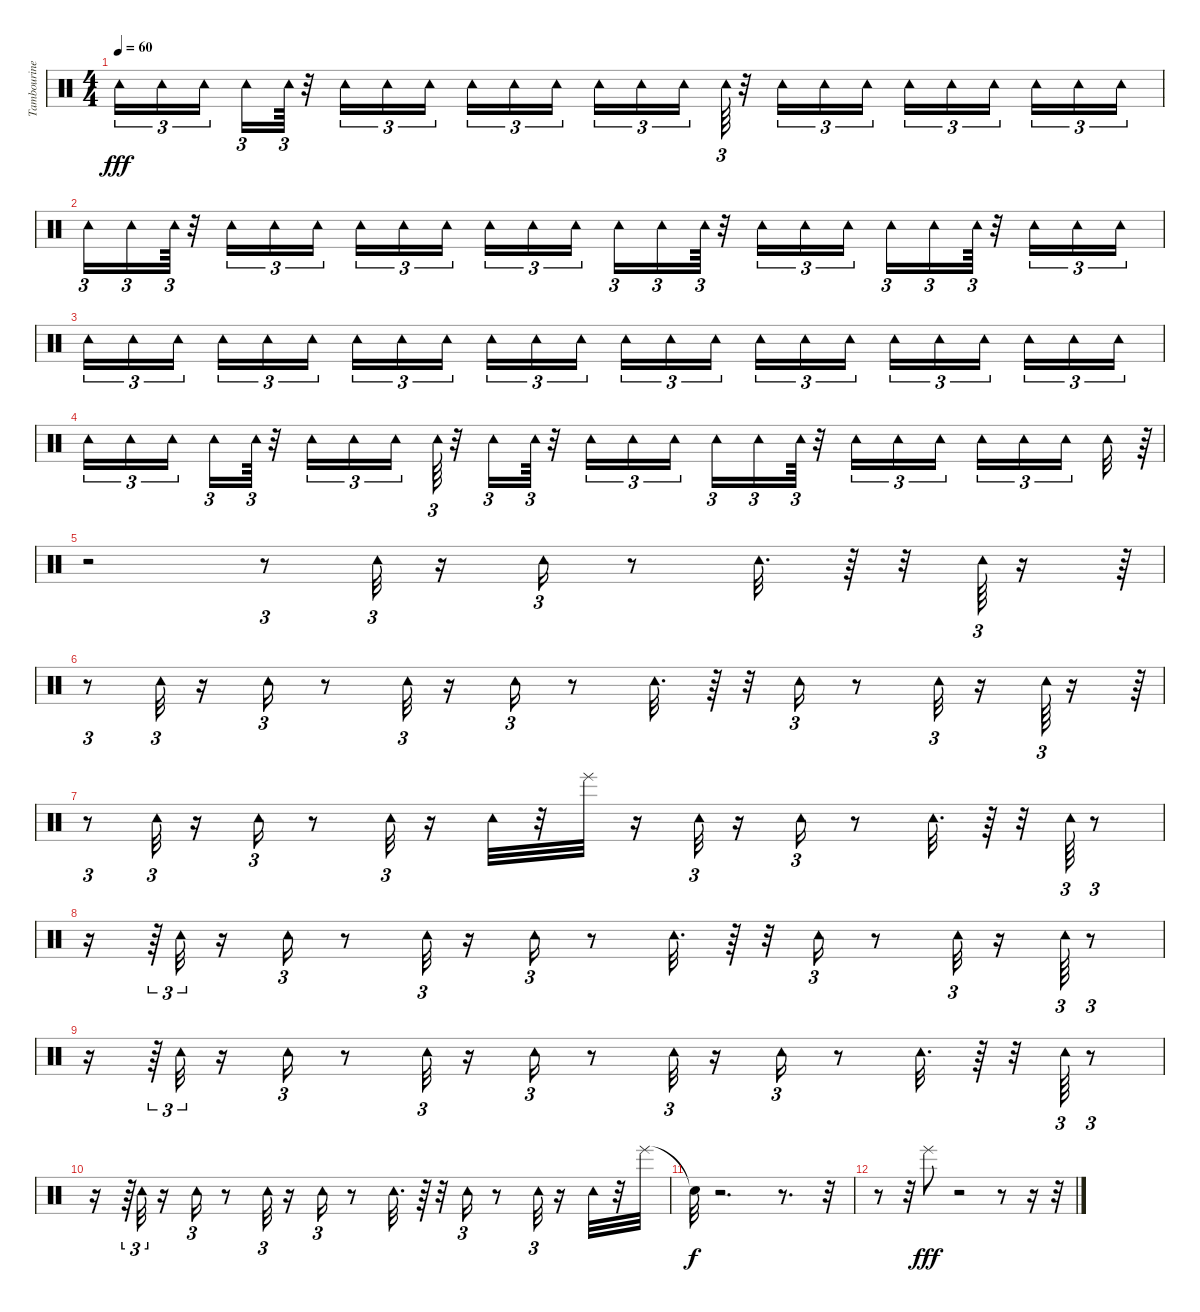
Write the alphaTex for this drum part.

\track ("Tambourine" "Tambourine") {instrument percussion}
\staff {score}
\articulation defaults
\ts (4 4)
\tempo 60
\clef neutral
\ks c "Tambourine (hit)".16{tu (3 2) dy fff} "Tambourine (hit)".16{tu (3 2)} "Tambourine (hit)".16{tu (3 2) beam splitsecondary} "Tambourine (hit)".16{tu (3 2)} "Tambourine (hit)".64{tu (3 2)}
r.32 "Tambourine (hit)".16{tu (3 2)} "Tambourine (hit)".16{tu (3 2)} "Tambourine (hit)".16{tu (3 2) beam splitsecondary} "Tambourine (hit)".16{tu (3 2)} "Tambourine (hit)".16{tu (3 2)} "Tambourine (hit)".16{tu (3 2) beam splitsecondary} "Tambourine (hit)".16{tu (3 2)} "Tambourine (hit)".16{tu (3 2)} "Tambourine (hit)".16{tu (3 2) beam splitsecondary} "Tambourine (hit)".64{tu (3 2)} r.32 "Tambourine (hit)".16{tu (3 2)} "Tambourine (hit)".16{tu (3 2)} "Tambourine (hit)".16{tu (3 2)} "Tambourine (hit)".16{tu (3 2)} "Tambourine (hit)".16{tu (3 2)} "Tambourine (hit)".16{tu (3 2) beam splitsecondary} "Tambourine (hit)".16{tu (3 2)} "Tambourine (hit)".16{tu (3 2)} "Tambourine (hit)".16{tu (3 2)} |
"Tambourine (hit)".16{tu (3 2)} "Tambourine (hit)".16{tu (3 2)} "Tambourine (hit)".64{tu (3 2)} r.32 "Tambourine (hit)".16{tu (3 2)} "Tambourine (hit)".16{tu (3 2)} "Tambourine (hit)".16{tu (3 2)} "Tambourine (hit)".16{tu (3 2)} "Tambourine (hit)".16{tu (3 2)} "Tambourine (hit)".16{tu (3 2) beam splitsecondary} "Tambourine (hit)".16{tu (3 2)} "Tambourine (hit)".16{tu (3 2)} "Tambourine (hit)".16{tu (3 2)} "Tambourine (hit)".16{tu (3 2)} "Tambourine (hit)".16{tu (3 2)} "Tambourine (hit)".64{tu (3 2)} r.32 "Tambourine (hit)".16{tu (3 2)} "Tambourine (hit)".16{tu (3 2)} "Tambourine (hit)".16{tu (3 2)} "Tambourine (hit)".16{tu (3 2)} "Tambourine (hit)".16{tu (3 2)} "Tambourine (hit)".64{tu (3 2)} r.32 "Tambourine (hit)".16{tu (3 2)} "Tambourine (hit)".16{tu (3 2)} "Tambourine (hit)".16{tu (3 2)} |
"Tambourine (hit)".16{tu (3 2)} "Tambourine (hit)".16{tu (3 2)} "Tambourine (hit)".16{tu (3 2) beam splitsecondary} "Tambourine (hit)".16{tu (3 2)} "Tambourine (hit)".16{tu (3 2)} "Tambourine (hit)".16{tu (3 2)} "Tambourine (hit)".16{tu (3 2)} "Tambourine (hit)".16{tu (3 2)} "Tambourine (hit)".16{tu (3 2) beam splitsecondary} "Tambourine (hit)".16{tu (3 2)} "Tambourine (hit)".16{tu (3 2)} "Tambourine (hit)".16{tu (3 2)} "Tambourine (hit)".16{tu (3 2)} "Tambourine (hit)".16{tu (3 2)} "Tambourine (hit)".16{tu (3 2) beam splitsecondary} "Tambourine (hit)".16{tu (3 2)} "Tambourine (hit)".16{tu (3 2)} "Tambourine (hit)".16{tu (3 2)} "Tambourine (hit)".16{tu (3 2)} "Tambourine (hit)".16{tu (3 2)} "Tambourine (hit)".16{tu (3 2) beam splitsecondary} "Tambourine (hit)".16{tu (3 2)} "Tambourine (hit)".16{tu (3 2)} "Tambourine (hit)".16{tu (3 2)} |
"Tambourine (hit)".16{tu (3 2)} "Tambourine (hit)".16{tu (3 2)} "Tambourine (hit)".16{tu (3 2) beam splitsecondary} "Tambourine (hit)".16{tu (3 2)} "Tambourine (hit)".64{tu (3 2)} r.32 "Tambourine (hit)".16{tu (3 2)} "Tambourine (hit)".16{tu (3 2)} "Tambourine (hit)".16{tu (3 2) beam splitsecondary} "Tambourine (hit)".64{tu (3 2)} r.32 "Tambourine (hit)".16{tu (3 2)} "Tambourine (hit)".64{tu (3 2)} r.32 "Tambourine (hit)".16{tu (3 2)} "Tambourine (hit)".16{tu (3 2)} "Tambourine (hit)".16{tu (3 2) beam splitsecondary} "Tambourine (hit)".16{tu (3 2)} "Tambourine (hit)".16{tu (3 2)} "Tambourine (hit)".64{tu (3 2)} r.32 "Tambourine (hit)".16{tu (3 2)} "Tambourine (hit)".16{tu (3 2)} "Tambourine (hit)".16{tu (3 2) beam splitsecondary} "Tambourine (hit)".16{tu (3 2)} "Tambourine (hit)".16{tu (3 2)} "Tambourine (hit)".16{tu (3 2) beam splitsecondary} "Tambourine (hit)".32 r.64{tu (3 2)} |
r.2 r.8{tu (3 2)} "Tambourine (hit)".32{tu (3 2)} r.16 "Tambourine (hit)".16{tu (3 2)} r.8 "Tambourine (hit)".32{d} r.64 r.32 "Tambourine (hit)".64{tu (3 2)} r.16 r.64{tu (3 2)} |
r.8{tu (3 2)} "Tambourine (hit)".32{tu (3 2)} r.16 "Tambourine (hit)".16{tu (3 2)} r.8 "Tambourine (hit)".32{tu (3 2)} r.16 "Tambourine (hit)".16{tu (3 2)} r.8 "Tambourine (hit)".32{d} r.64 r.32 "Tambourine (hit)".16{tu (3 2)} r.8 "Tambourine (hit)".32{tu (3 2)} r.16 "Tambourine (hit)".64{tu (3 2)} r.16 r.64{tu (3 2)} |
r.8{tu (3 2)} "Tambourine (hit)".32{tu (3 2)} r.16 "Tambourine (hit)".16{tu (3 2)} r.8 "Tambourine (hit)".32{tu (3 2)} r.16 "Tambourine (hit)".32 r.32 "Hand (slap)".32 r.16 "Tambourine (hit)".32{tu (3 2)} r.16 "Tambourine (hit)".16{tu (3 2)} r.8 "Tambourine (hit)".32{d} r.64 r.32 "Tambourine (hit)".64{tu (3 2)} r.8{tu (3 2)} |
r.16 r.64{tu (3 2)} "Tambourine (hit)".32{tu (3 2)} r.16 "Tambourine (hit)".16{tu (3 2)} r.8 "Tambourine (hit)".32{tu (3 2)} r.16 "Tambourine (hit)".16{tu (3 2)} r.8 "Tambourine (hit)".32{d} r.64 r.32 "Tambourine (hit)".16{tu (3 2)} r.8 "Tambourine (hit)".32{tu (3 2)} r.16 "Tambourine (hit)".64{tu (3 2)} r.8{tu (3 2)} |
r.16 r.64{tu (3 2)} "Tambourine (hit)".32{tu (3 2)} r.16 "Tambourine (hit)".16{tu (3 2)} r.8 "Tambourine (hit)".32{tu (3 2)} r.16 "Tambourine (hit)".16{tu (3 2)} r.8 "Tambourine (hit)".32{tu (3 2)} r.16 "Tambourine (hit)".16{tu (3 2)} r.8 "Tambourine (hit)".32{d} r.64 r.32 "Tambourine (hit)".64{tu (3 2)} r.8{tu (3 2)} |
r.16 r.64{tu (3 2)} "Tambourine (hit)".32{tu (3 2)} r.16 "Tambourine (hit)".16{tu (3 2)} r.8 "Tambourine (hit)".32{tu (3 2)} r.16 "Tambourine (hit)".16{tu (3 2)} r.8 "Tambourine (hit)".32{d} r.64 r.32 "Tambourine (hit)".16{tu (3 2)} r.8 "Tambourine (hit)".32{tu (3 2)} r.16 "Tambourine (hit)".32 r.32 "Hand (slap)".32 |
"Snare (hit)"{t}.32{dy f} r.2{d} r.8{d} r.32 |
r.8 r.32 "Hand (slap)".8{dy fff} r.2 r.8 r.16 r.32
